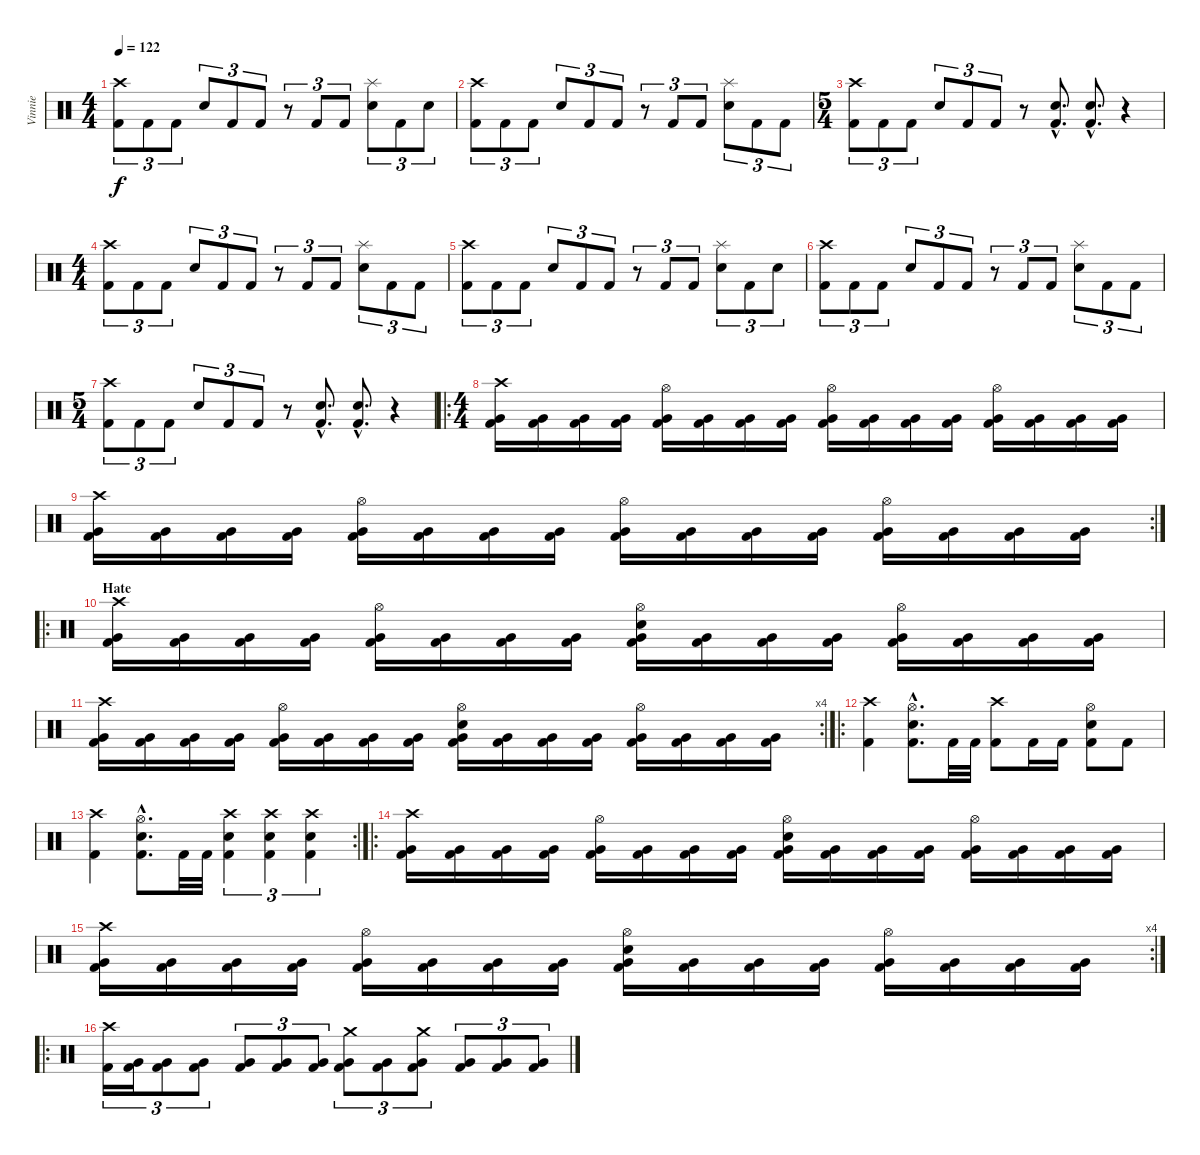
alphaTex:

\track ("Vinnie" "Vinnie") {instrument percussion}
\staff {score}
\articulation defaults
\ts (4 4)
\tempo 122
\clef neutral
\ks c
("Crash high (hit)" "Kick (hit) 2").8{tu (3 2) dy f} "Kick (hit) 2".8{tu (3 2)} "Kick (hit) 2".8{tu (3 2)} "Snare (hit) 2".8{tu (3 2)} "Kick (hit) 2".8{tu (3 2)} "Kick (hit) 2".8{tu (3 2)} r.8{tu (3 2)} "Kick (hit) 2".8{tu (3 2)} "Kick (hit) 2".8{tu (3 2)} ("Splash (hit)" "Snare (hit) 2").8{tu (3 2)} "Kick (hit) 2".8{tu (3 2)} "Snare (hit) 2".8{tu (3 2)} |
("Crash high (hit)" "Kick (hit) 2").8{tu (3 2)} "Kick (hit) 2".8{tu (3 2)} "Kick (hit) 2".8{tu (3 2)} "Snare (hit) 2".8{tu (3 2)} "Kick (hit) 2".8{tu (3 2)} "Kick (hit) 2".8{tu (3 2)} r.8{tu (3 2)} "Kick (hit) 2".8{tu (3 2)} "Kick (hit) 2".8{tu (3 2)} ("Splash (hit)" "Snare (hit) 2").8{tu (3 2)} "Kick (hit) 2".8{tu (3 2)} "Kick (hit) 2".8{tu (3 2)} |
\ts (5 4)
("Crash high (hit)" "Kick (hit) 2").8{tu (3 2)} "Kick (hit) 2".8{tu (3 2)} "Kick (hit) 2".8{tu (3 2)} "Snare (hit) 2".8{tu (3 2)} "Kick (hit) 2".8{tu (3 2)} "Kick (hit) 2".8{tu (3 2)} r.8 ("Snare (hit) 2"{hac} "Kick (hit) 2"{hac}).8{d} ("Snare (hit) 2"{hac} "Kick (hit) 2"{hac}).8{d} r.4 |
\ts (4 4)
("Crash high (hit)" "Kick (hit) 2").8{tu (3 2)} "Kick (hit) 2".8{tu (3 2)} "Kick (hit) 2".8{tu (3 2)} "Snare (hit) 2".8{tu (3 2)} "Kick (hit) 2".8{tu (3 2)} "Kick (hit) 2".8{tu (3 2)} r.8{tu (3 2)} "Kick (hit) 2".8{tu (3 2)} "Kick (hit) 2".8{tu (3 2)} ("Splash (hit)" "Snare (hit) 2").8{tu (3 2)} "Kick (hit) 2".8{tu (3 2)} "Kick (hit) 2".8{tu (3 2)} |
("Crash high (hit)" "Kick (hit) 2").8{tu (3 2)} "Kick (hit) 2".8{tu (3 2)} "Kick (hit) 2".8{tu (3 2)} "Snare (hit) 2".8{tu (3 2)} "Kick (hit) 2".8{tu (3 2)} "Kick (hit) 2".8{tu (3 2)} r.8{tu (3 2)} "Kick (hit) 2".8{tu (3 2)} "Kick (hit) 2".8{tu (3 2)} ("Splash (hit)" "Snare (hit) 2").8{tu (3 2)} "Kick (hit) 2".8{tu (3 2)} "Snare (hit) 2".8{tu (3 2)} |
("Crash high (hit)" "Kick (hit) 2").8{tu (3 2)} "Kick (hit) 2".8{tu (3 2)} "Kick (hit) 2".8{tu (3 2)} "Snare (hit) 2".8{tu (3 2)} "Kick (hit) 2".8{tu (3 2)} "Kick (hit) 2".8{tu (3 2)} r.8{tu (3 2)} "Kick (hit) 2".8{tu (3 2)} "Kick (hit) 2".8{tu (3 2)} ("Splash (hit)" "Snare (hit) 2").8{tu (3 2)} "Kick (hit) 2".8{tu (3 2)} "Kick (hit) 2".8{tu (3 2)} |
\ts (5 4)
("Crash high (hit)" "Kick (hit) 2").8{tu (3 2)} "Kick (hit) 2".8{tu (3 2)} "Kick (hit) 2".8{tu (3 2)} "Snare (hit) 2".8{tu (3 2)} "Kick (hit) 2".8{tu (3 2)} "Kick (hit) 2".8{tu (3 2)} r.8 ("Snare (hit) 2"{hac} "Kick (hit) 2"{hac}).8{d} ("Snare (hit) 2"{hac} "Kick (hit) 2"{hac}).8{d} r.4 |
\ro
\ts (4 4)
("Crash high (hit)" "Very Low Tom (hit)" "Kick (hit) 2").16 ("Very Low Tom (hit)" "Kick (hit) 2").16 ("Very Low Tom (hit)" "Kick (hit) 2").16 ("Very Low Tom (hit)" "Kick (hit) 2").16 ("Hi-Hat (open)" "Very Low Tom (hit)" "Kick (hit) 2").16 ("Very Low Tom (hit)" "Kick (hit) 2").16 ("Very Low Tom (hit)" "Kick (hit) 2").16 ("Very Low Tom (hit)" "Kick (hit) 2").16 ("Hi-Hat (open)" "Very Low Tom (hit)" "Kick (hit) 2").16 ("Very Low Tom (hit)" "Kick (hit) 2").16 ("Very Low Tom (hit)" "Kick (hit) 2").16 ("Very Low Tom (hit)" "Kick (hit) 2").16 ("Hi-Hat (open)" "Very Low Tom (hit)" "Kick (hit) 2").16 ("Very Low Tom (hit)" "Kick (hit) 2").16 ("Very Low Tom (hit)" "Kick (hit) 2").16 ("Very Low Tom (hit)" "Kick (hit) 2").16 |
\rc 2
("Crash high (hit)" "Very Low Tom (hit)" "Kick (hit) 2").16 ("Very Low Tom (hit)" "Kick (hit) 2").16 ("Very Low Tom (hit)" "Kick (hit) 2").16 ("Very Low Tom (hit)" "Kick (hit) 2").16 ("Hi-Hat (open)" "Very Low Tom (hit)" "Kick (hit) 2").16 ("Very Low Tom (hit)" "Kick (hit) 2").16 ("Very Low Tom (hit)" "Kick (hit) 2").16 ("Very Low Tom (hit)" "Kick (hit) 2").16 ("Hi-Hat (open)" "Very Low Tom (hit)" "Kick (hit) 2").16 ("Very Low Tom (hit)" "Kick (hit) 2").16 ("Very Low Tom (hit)" "Kick (hit) 2").16 ("Very Low Tom (hit)" "Kick (hit) 2").16 ("Hi-Hat (open)" "Very Low Tom (hit)" "Kick (hit) 2").16 ("Very Low Tom (hit)" "Kick (hit) 2").16 ("Very Low Tom (hit)" "Kick (hit) 2").16 ("Very Low Tom (hit)" "Kick (hit) 2").16 |
\ro
\section ("" "Hate")
("Crash high (hit)" "Very Low Tom (hit)" "Kick (hit) 2").16 ("Very Low Tom (hit)" "Kick (hit) 2").16 ("Very Low Tom (hit)" "Kick (hit) 2").16 ("Very Low Tom (hit)" "Kick (hit) 2").16 ("Hi-Hat (open)" "Very Low Tom (hit)" "Kick (hit) 2").16 ("Very Low Tom (hit)" "Kick (hit) 2").16 ("Very Low Tom (hit)" "Kick (hit) 2").16 ("Very Low Tom (hit)" "Kick (hit) 2").16 ("Snare (hit) 2" "Hi-Hat (open)" "Very Low Tom (hit)" "Kick (hit) 2").16 ("Very Low Tom (hit)" "Kick (hit) 2").16 ("Very Low Tom (hit)" "Kick (hit) 2").16 ("Very Low Tom (hit)" "Kick (hit) 2").16 ("Hi-Hat (open)" "Very Low Tom (hit)" "Kick (hit) 2").16 ("Very Low Tom (hit)" "Kick (hit) 2").16 ("Very Low Tom (hit)" "Kick (hit) 2").16 ("Very Low Tom (hit)" "Kick (hit) 2").16 |
\rc 4
("Crash high (hit)" "Very Low Tom (hit)" "Kick (hit) 2").16 ("Very Low Tom (hit)" "Kick (hit) 2").16 ("Very Low Tom (hit)" "Kick (hit) 2").16 ("Very Low Tom (hit)" "Kick (hit) 2").16 ("Hi-Hat (open)" "Very Low Tom (hit)" "Kick (hit) 2").16 ("Very Low Tom (hit)" "Kick (hit) 2").16 ("Very Low Tom (hit)" "Kick (hit) 2").16 ("Very Low Tom (hit)" "Kick (hit) 2").16 ("Snare (hit) 2" "Hi-Hat (open)" "Very Low Tom (hit)" "Kick (hit) 2").16 ("Very Low Tom (hit)" "Kick (hit) 2").16 ("Very Low Tom (hit)" "Kick (hit) 2").16 ("Very Low Tom (hit)" "Kick (hit) 2").16 ("Hi-Hat (open)" "Very Low Tom (hit)" "Kick (hit) 2").16 ("Very Low Tom (hit)" "Kick (hit) 2").16 ("Very Low Tom (hit)" "Kick (hit) 2").16 ("Very Low Tom (hit)" "Kick (hit) 2").16 |
\ro
("Crash high (hit)" "Kick (hit) 2").4 ("Hi-Hat (open)"{hac} "Snare (hit) 2"{hac} "Kick (hit) 2"{hac}).8{d} "Kick (hit) 2".32 "Kick (hit) 2".32 ("Crash high (hit)" "Kick (hit) 2").8 "Kick (hit) 2".16 "Kick (hit) 2".16 ("Hi-Hat (open)" "Snare (hit) 2" "Kick (hit) 2").8 "Kick (hit) 2".8 |
\rc 2
("Crash high (hit)" "Kick (hit) 2").4 ("Hi-Hat (open)"{hac} "Snare (hit) 2"{hac} "Kick (hit) 2"{hac}).8{d} "Kick (hit) 2".32 "Kick (hit) 2".32 ("Crash high (hit)" "Snare (hit) 2" "Kick (hit) 2").4{tu (3 2)} ("Crash high (hit)" "Snare (hit) 2" "Kick (hit) 2").4{tu (3 2)} ("Crash high (hit)" "Snare (hit) 2" "Kick (hit) 2").4{tu (3 2)} |
\ro
("Crash high (hit)" "Very Low Tom (hit)" "Kick (hit) 2").16 ("Very Low Tom (hit)" "Kick (hit) 2").16 ("Very Low Tom (hit)" "Kick (hit) 2").16 ("Very Low Tom (hit)" "Kick (hit) 2").16 ("Hi-Hat (open)" "Very Low Tom (hit)" "Kick (hit) 2").16 ("Very Low Tom (hit)" "Kick (hit) 2").16 ("Very Low Tom (hit)" "Kick (hit) 2").16 ("Very Low Tom (hit)" "Kick (hit) 2").16 ("Snare (hit) 2" "Hi-Hat (open)" "Very Low Tom (hit)" "Kick (hit) 2").16 ("Very Low Tom (hit)" "Kick (hit) 2").16 ("Very Low Tom (hit)" "Kick (hit) 2").16 ("Very Low Tom (hit)" "Kick (hit) 2").16 ("Hi-Hat (open)" "Very Low Tom (hit)" "Kick (hit) 2").16 ("Very Low Tom (hit)" "Kick (hit) 2").16 ("Very Low Tom (hit)" "Kick (hit) 2").16 ("Very Low Tom (hit)" "Kick (hit) 2").16 |
\rc 4
("Crash high (hit)" "Very Low Tom (hit)" "Kick (hit) 2").16 ("Very Low Tom (hit)" "Kick (hit) 2").16 ("Very Low Tom (hit)" "Kick (hit) 2").16 ("Very Low Tom (hit)" "Kick (hit) 2").16 ("Hi-Hat (open)" "Very Low Tom (hit)" "Kick (hit) 2").16 ("Very Low Tom (hit)" "Kick (hit) 2").16 ("Very Low Tom (hit)" "Kick (hit) 2").16 ("Very Low Tom (hit)" "Kick (hit) 2").16 ("Snare (hit) 2" "Hi-Hat (open)" "Very Low Tom (hit)" "Kick (hit) 2").16 ("Very Low Tom (hit)" "Kick (hit) 2").16 ("Very Low Tom (hit)" "Kick (hit) 2").16 ("Very Low Tom (hit)" "Kick (hit) 2").16 ("Hi-Hat (open)" "Very Low Tom (hit)" "Kick (hit) 2").16 ("Very Low Tom (hit)" "Kick (hit) 2").16 ("Very Low Tom (hit)" "Kick (hit) 2").16 ("Very Low Tom (hit)" "Kick (hit) 2").16 |
\ro
("Crash high (hit)" "Kick (hit) 2").16{tu (3 2)} ("Very Low Tom (hit)" "Kick (hit) 2").16{tu (3 2)} ("Very Low Tom (hit)" "Kick (hit) 2").8{tu (3 2)} ("Very Low Tom (hit)" "Kick (hit) 2").8{tu (3 2)} ("Very Low Tom (hit)" "Kick (hit) 2").8{tu (3 2)} ("Very Low Tom (hit)" "Kick (hit) 2").8{tu (3 2)} ("Very Low Tom (hit)" "Kick (hit) 2").8{tu (3 2)} ("Crash medium (hit)" "Very Low Tom (hit)" "Kick (hit) 2").8{tu (3 2)} ("Very Low Tom (hit)" "Kick (hit) 2").8{tu (3 2)} ("Crash medium (hit)" "Very Low Tom (hit)" "Kick (hit) 2").8{tu (3 2)} ("Very Low Tom (hit)" "Kick (hit) 2").8{tu (3 2)} ("Very Low Tom (hit)" "Kick (hit) 2").8{tu (3 2)} ("Very Low Tom (hit)" "Kick (hit) 2").8{tu (3 2)}
